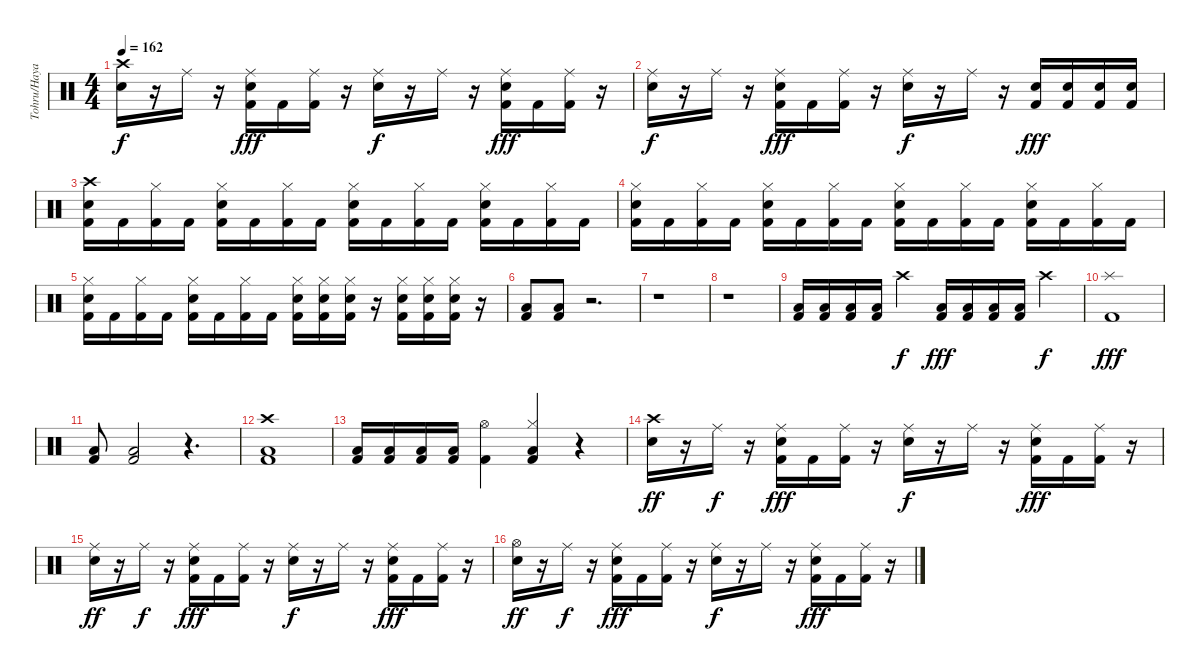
\track ("Tohru/Hayato" "Tohru/Haya") {instrument percussion}
\staff {score}
\articulation defaults
\ts (4 4)
\tempo 162
\clef neutral
\ks c
("Crash high (hit)" "Electric Snare (hit)").16{dy f} r.16 "Ride (middle)".16 r.16 ("Ride (middle)" "Electric Snare (hit)" "Kick (hit) 2").16{dy fff} "Kick (hit) 2".16 ("Ride (middle)" "Kick (hit) 2").16 r.16 ("Ride (middle)" "Electric Snare (hit)").16{dy f} r.16 "Ride (middle)".16 r.16 ("Ride (middle)" "Electric Snare (hit)" "Kick (hit) 2").16{dy fff} "Kick (hit) 2".16 ("Ride (middle)" "Kick (hit) 2").16 r.16 |
("Ride (middle)" "Electric Snare (hit)").16{dy f} r.16 "Ride (middle)".16 r.16 ("Ride (middle)" "Electric Snare (hit)" "Kick (hit) 2").16{dy fff} "Kick (hit) 2".16 ("Ride (middle)" "Kick (hit) 2").16 r.16 ("Ride (middle)" "Electric Snare (hit)").16{dy f} r.16 "Ride (middle)".16 r.16 ("Electric Snare (hit)" "Kick (hit) 2").16{dy fff} ("Electric Snare (hit)" "Kick (hit) 2").16 ("Electric Snare (hit)" "Kick (hit) 2").16 ("Electric Snare (hit)" "Kick (hit) 2").16 |
("Crash high (hit)" "Electric Snare (hit)" "Kick (hit) 2").16 "Kick (hit) 2".16 ("Hi-Hat (closed)" "Kick (hit) 2").16 "Kick (hit) 2".16 ("Hi-Hat (closed)" "Electric Snare (hit)" "Kick (hit) 2").16 "Kick (hit) 2".16 ("Hi-Hat (closed)" "Kick (hit) 2").16 "Kick (hit) 2".16 ("Hi-Hat (closed)" "Electric Snare (hit)" "Kick (hit) 2").16 "Kick (hit) 2".16 ("Hi-Hat (closed)" "Kick (hit) 2").16 "Kick (hit) 2".16 ("Hi-Hat (closed)" "Electric Snare (hit)" "Kick (hit) 2").16 "Kick (hit) 2".16 ("Hi-Hat (closed)" "Kick (hit) 2").16 "Kick (hit) 2".16 |
("Hi-Hat (closed)" "Electric Snare (hit)" "Kick (hit) 2").16 "Kick (hit) 2".16 ("Hi-Hat (closed)" "Kick (hit) 2").16 "Kick (hit) 2".16 ("Hi-Hat (closed)" "Electric Snare (hit)" "Kick (hit) 2").16 "Kick (hit) 2".16 ("Hi-Hat (closed)" "Kick (hit) 2").16 "Kick (hit) 2".16 ("Hi-Hat (closed)" "Electric Snare (hit)" "Kick (hit) 2").16 "Kick (hit) 2".16 ("Hi-Hat (closed)" "Kick (hit) 2").16 "Kick (hit) 2".16 ("Hi-Hat (closed)" "Electric Snare (hit)" "Kick (hit) 2").16 "Kick (hit) 2".16 ("Hi-Hat (closed)" "Kick (hit) 2").16 "Kick (hit) 2".16 |
("Hi-Hat (closed)" "Electric Snare (hit)" "Kick (hit) 2").16 "Kick (hit) 2".16 ("Hi-Hat (closed)" "Kick (hit) 2").16 "Kick (hit) 2".16 ("Hi-Hat (closed)" "Electric Snare (hit)" "Kick (hit) 2").16 "Kick (hit) 2".16 ("Hi-Hat (closed)" "Kick (hit) 2").16 "Kick (hit) 2".16 ("Hi-Hat (closed)" "Electric Snare (hit)" "Kick (hit) 2").16 ("Hi-Hat (closed)" "Electric Snare (hit)" "Kick (hit) 2").16 ("Hi-Hat (closed)" "Electric Snare (hit)" "Kick (hit) 2").16 r.16 ("Hi-Hat (closed)" "Electric Snare (hit)" "Kick (hit) 2").16 ("Hi-Hat (closed)" "Electric Snare (hit)" "Kick (hit) 2").16 ("Hi-Hat (closed)" "Electric Snare (hit)" "Kick (hit) 2").16 r.16 |
("Low Tom (hit)" "Kick (hit) 2").8 ("Low Tom (hit)" "Kick (hit) 2").8 r.2{d} |
r.1 |
r.1 |
("Low Tom (hit)" "Kick (hit) 2").16 ("Low Tom (hit)" "Kick (hit) 2").16 ("Low Tom (hit)" "Kick (hit) 2").16 ("Low Tom (hit)" "Kick (hit) 2").16 "Crash high (hit)".4{dy f} ("Low Tom (hit)" "Kick (hit) 2").16{dy fff} ("Low Tom (hit)" "Kick (hit) 2").16 ("Low Tom (hit)" "Kick (hit) 2").16 ("Low Tom (hit)" "Kick (hit) 2").16 "Crash high (hit)".4{dy f} |
("Splash (hit)" "Kick (hit) 2").1{dy fff} |
("Low Tom (hit)" "Kick (hit) 2").8 ("Low Tom (hit)" "Kick (hit) 2").2 r.4{d} |
("Crash high (hit)" "Low Tom (hit)" "Kick (hit) 2").1 |
("Low Tom (hit)" "Kick (hit) 2").16 ("Low Tom (hit)" "Kick (hit) 2").16 ("Low Tom (hit)" "Kick (hit) 2").16 ("Low Tom (hit)" "Kick (hit) 2").16 ("Hi-Hat (open)" "Kick (hit) 2").4 ("Hi-Hat (closed)" "Low Tom (hit)" "Kick (hit) 2").4 r.4 |
("Crash high (hit)" "Electric Snare (hit)").16{dy ff} r.16 "Ride (middle)".16{dy f} r.16 ("Ride (middle)" "Electric Snare (hit)" "Kick (hit) 2").16{dy fff} "Kick (hit) 2".16 ("Ride (middle)" "Kick (hit) 2").16 r.16 ("Ride (middle)" "Electric Snare (hit)").16{dy f} r.16 "Ride (middle)".16 r.16 ("Ride (middle)" "Electric Snare (hit)" "Kick (hit) 2").16{dy fff} "Kick (hit) 2".16 ("Ride (middle)" "Kick (hit) 2").16 r.16 |
("Ride (middle)" "Electric Snare (hit)").16{dy ff} r.16 "Ride (middle)".16{dy f} r.16 ("Ride (middle)" "Electric Snare (hit)" "Kick (hit) 2").16{dy fff} "Kick (hit) 2".16 ("Ride (middle)" "Kick (hit) 2").16 r.16 ("Ride (middle)" "Electric Snare (hit)").16{dy f} r.16 "Ride (middle)".16 r.16 ("Ride (middle)" "Electric Snare (hit)" "Kick (hit) 2").16{dy fff} "Kick (hit) 2".16 ("Ride (middle)" "Kick (hit) 2").16 r.16 |
("Hi-Hat (open)" "Electric Snare (hit)").16{dy ff} r.16 "Ride (middle)".16{dy f} r.16 ("Ride (middle)" "Electric Snare (hit)" "Kick (hit) 2").16{dy fff} "Kick (hit) 2".16 ("Ride (middle)" "Kick (hit) 2").16 r.16 ("Ride (middle)" "Electric Snare (hit)").16{dy f} r.16 "Ride (middle)".16 r.16 ("Ride (middle)" "Electric Snare (hit)" "Kick (hit) 2").16{dy fff} "Kick (hit) 2".16 ("Ride (middle)" "Kick (hit) 2").16 r.16
